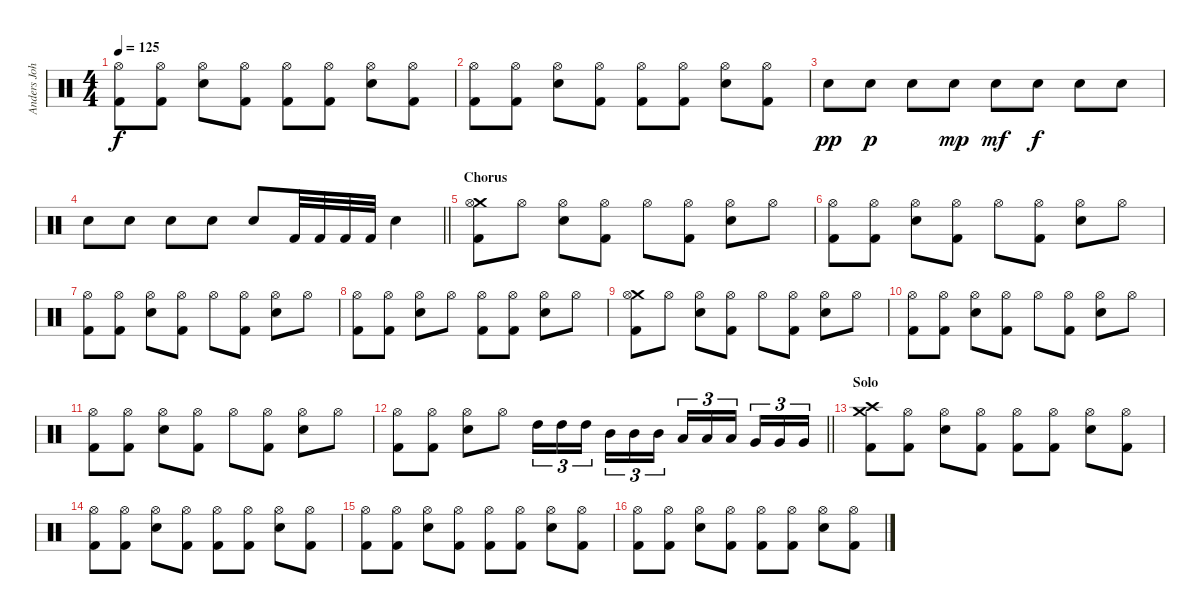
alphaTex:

\track ("Anders Johansson" "Anders Joh") {instrument percussion}
\staff {score}
\articulation defaults
\ts (4 4)
\tempo 125
\clef neutral
\ks c
("Hi-Hat (open)" "Kick (hit) 2").8{dy f} ("Hi-Hat (open)" "Kick (hit) 2").8 ("Hi-Hat (open)" "Snare (hit) 2").8 ("Hi-Hat (open)" "Kick (hit) 2").8 ("Hi-Hat (open)" "Kick (hit) 2").8 ("Hi-Hat (open)" "Kick (hit) 2").8 ("Hi-Hat (open)" "Snare (hit) 2").8 ("Hi-Hat (open)" "Kick (hit) 2").8 |
("Hi-Hat (open)" "Kick (hit) 2").8 ("Hi-Hat (open)" "Kick (hit) 2").8 ("Hi-Hat (open)" "Snare (hit) 2").8 ("Hi-Hat (open)" "Kick (hit) 2").8 ("Hi-Hat (open)" "Kick (hit) 2").8 ("Hi-Hat (open)" "Kick (hit) 2").8 ("Hi-Hat (open)" "Snare (hit) 2").8 ("Hi-Hat (open)" "Kick (hit) 2").8 |
"Electric Snare (hit)".8{dy pp} "Electric Snare (hit)".8{dy p} "Electric Snare (hit)".8 "Electric Snare (hit)".8{dy mp} "Electric Snare (hit)".8{dy mf} "Electric Snare (hit)".8{dy f} "Electric Snare (hit)".8 "Electric Snare (hit)".8 |
\barLineRight lightlight "Electric Snare (hit)".8 "Electric Snare (hit)".8 "Electric Snare (hit)".8 "Electric Snare (hit)".8 "Electric Snare (hit)".8 "Kick (hit) 2".32 "Kick (hit) 2".32 "Kick (hit) 2".32 "Kick (hit) 2".32 "Snare (hit) 2".4
|
\section ("" "Chorus")
("Crash medium (hit)" "Hi-Hat (open)" "Kick (hit) 2").8 "Hi-Hat (open)".8 ("Hi-Hat (open)" "Snare (hit) 2").8 ("Hi-Hat (open)" "Kick (hit) 2").8 "Hi-Hat (open)".8 ("Hi-Hat (open)" "Kick (hit) 2").8 ("Hi-Hat (open)" "Snare (hit) 2").8 "Hi-Hat (open)".8 |
("Hi-Hat (open)" "Kick (hit) 2").8 ("Hi-Hat (open)" "Kick (hit) 2").8 ("Hi-Hat (open)" "Snare (hit) 2").8 ("Hi-Hat (open)" "Kick (hit) 2").8 "Hi-Hat (open)".8 ("Hi-Hat (open)" "Kick (hit) 2").8 ("Hi-Hat (open)" "Snare (hit) 2").8 "Hi-Hat (open)".8 |
("Hi-Hat (open)" "Kick (hit) 2").8 ("Hi-Hat (open)" "Kick (hit) 2").8 ("Hi-Hat (open)" "Snare (hit) 2").8 ("Hi-Hat (open)" "Kick (hit) 2").8 "Hi-Hat (open)".8 ("Hi-Hat (open)" "Kick (hit) 2").8 ("Hi-Hat (open)" "Snare (hit) 2").8 "Hi-Hat (open)".8 |
("Hi-Hat (open)" "Kick (hit) 2").8 ("Hi-Hat (open)" "Kick (hit) 2").8 ("Hi-Hat (open)" "Snare (hit) 2").8 "Hi-Hat (open)".8 ("Hi-Hat (open)" "Kick (hit) 2").8 ("Hi-Hat (open)" "Kick (hit) 2").8 ("Hi-Hat (open)" "Snare (hit) 2").8 "Hi-Hat (open)".8 |
("Crash medium (hit)" "Hi-Hat (open)" "Kick (hit) 2").8 "Hi-Hat (open)".8 ("Hi-Hat (open)" "Snare (hit) 2").8 ("Hi-Hat (open)" "Kick (hit) 2").8 "Hi-Hat (open)".8 ("Hi-Hat (open)" "Kick (hit) 2").8 ("Hi-Hat (open)" "Snare (hit) 2").8 "Hi-Hat (open)".8 |
("Hi-Hat (open)" "Kick (hit) 2").8 ("Hi-Hat (open)" "Kick (hit) 2").8 ("Hi-Hat (open)" "Snare (hit) 2").8 ("Hi-Hat (open)" "Kick (hit) 2").8 "Hi-Hat (open)".8 ("Hi-Hat (open)" "Kick (hit) 2").8 ("Hi-Hat (open)" "Snare (hit) 2").8 "Hi-Hat (open)".8 |
("Hi-Hat (open)" "Kick (hit) 2").8 ("Hi-Hat (open)" "Kick (hit) 2").8 ("Hi-Hat (open)" "Snare (hit) 2").8 ("Hi-Hat (open)" "Kick (hit) 2").8 "Hi-Hat (open)".8 ("Hi-Hat (open)" "Kick (hit) 2").8 ("Hi-Hat (open)" "Snare (hit) 2").8 "Hi-Hat (open)".8 |
\barLineRight lightlight
("Hi-Hat (open)" "Kick (hit) 2").8 ("Hi-Hat (open)" "Kick (hit) 2").8 ("Hi-Hat (open)" "Snare (hit) 2").8 "Hi-Hat (open)".8 "High Tom (hit)".16{tu (3 2)} "High Tom (hit)".16{tu (3 2)} "High Tom (hit)".16{tu (3 2) beam splitsecondary} "Mid Tom (hit)".16{tu (3 2)} "Mid Tom (hit)".16{tu (3 2)} "Mid Tom (hit)".16{tu (3 2)} "Low Tom (hit)".16{tu (3 2)} "Low Tom (hit)".16{tu (3 2)} "Low Tom (hit)".16{tu (3 2) beam splitsecondary} "Very Low Tom (hit)".16{tu (3 2)} "Very Low Tom (hit)".16{tu (3 2)} "Very Low Tom (hit)".16{tu (3 2)} |
\section ("" "Solo")
("Crash high (hit)" "Crash medium (hit)" "Kick (hit) 2").8 ("Hi-Hat (open)" "Kick (hit) 2").8 ("Hi-Hat (open)" "Snare (hit) 2").8 ("Hi-Hat (open)" "Kick (hit) 2").8 ("Hi-Hat (open)" "Kick (hit) 2").8 ("Hi-Hat (open)" "Kick (hit) 2").8 ("Hi-Hat (open)" "Snare (hit) 2").8 ("Hi-Hat (open)" "Kick (hit) 2").8 |
("Hi-Hat (open)" "Kick (hit) 2").8 ("Hi-Hat (open)" "Kick (hit) 2").8 ("Hi-Hat (open)" "Snare (hit) 2").8 ("Hi-Hat (open)" "Kick (hit) 2").8 ("Hi-Hat (open)" "Kick (hit) 2").8 ("Hi-Hat (open)" "Kick (hit) 2").8 ("Hi-Hat (open)" "Snare (hit) 2").8 ("Hi-Hat (open)" "Kick (hit) 2").8 |
("Hi-Hat (open)" "Kick (hit) 2").8 ("Hi-Hat (open)" "Kick (hit) 2").8 ("Hi-Hat (open)" "Snare (hit) 2").8 ("Hi-Hat (open)" "Kick (hit) 2").8 ("Hi-Hat (open)" "Kick (hit) 2").8 ("Hi-Hat (open)" "Kick (hit) 2").8 ("Hi-Hat (open)" "Snare (hit) 2").8 ("Hi-Hat (open)" "Kick (hit) 2").8 |
("Hi-Hat (open)" "Kick (hit) 2").8 ("Hi-Hat (open)" "Kick (hit) 2").8 ("Hi-Hat (open)" "Snare (hit) 2").8 ("Hi-Hat (open)" "Kick (hit) 2").8 ("Hi-Hat (open)" "Kick (hit) 2").8 ("Hi-Hat (open)" "Kick (hit) 2").8 ("Hi-Hat (open)" "Snare (hit) 2").8 ("Hi-Hat (open)" "Kick (hit) 2").8
